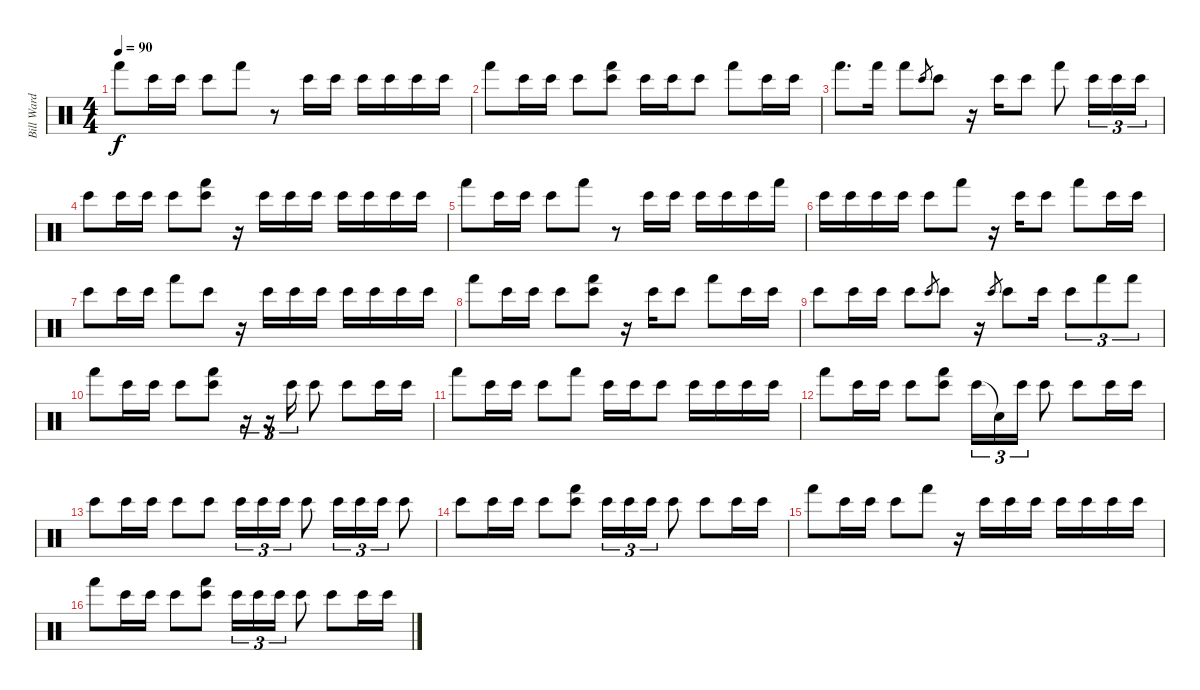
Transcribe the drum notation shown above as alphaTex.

\track ("Bill Ward" "Bill Ward") {instrument percussion}
\staff {score}
\articulation defaults
\ts (4 4)
\tempo 90
\clef neutral
\ks c "Hand (hit)".8{dy f} "Bongo High (hit)".16 "Bongo High (hit)".16 "Bongo High (hit)".8 "Hand (hit)".8
r.8 "Bongo High (hit)".16 "Bongo High (hit)".16 "Bongo High (hit)".16 "Bongo High (hit)".16 "Bongo High (hit)".16 "Bongo High (hit)".16 |
"Hand (hit)".8 "Bongo High (hit)".16 "Bongo High (hit)".16 "Bongo High (hit)".8 ("Bongo High (hit)" "Hand (hit)").8 "Bongo High (hit)".16 "Bongo High (hit)".16 "Bongo High (hit)".8 "Hand (hit)".8 "Bongo High (hit)".16 "Bongo High (hit)".16 |
"Hand (hit)".8{d} "Hand (hit)".16 "Hand (hit)".8 "Bongo High (hit)".8{gr} "Bongo High (hit)".8 r.16 "Bongo High (hit)".16 "Bongo High (hit)".8 "Hand (hit)".8 "Bongo High (hit)".16{tu (3 2)} "Bongo High (hit)".16{tu (3 2)} "Bongo High (hit)".16{tu (3 2)} |
"Bongo High (hit)".8 "Bongo High (hit)".16 "Bongo High (hit)".16 "Bongo High (hit)".8 ("Bongo High (hit)" "Hand (hit)").8 r.16 "Bongo High (hit)".16 "Bongo High (hit)".16 "Bongo High (hit)".16 "Bongo High (hit)".16 "Bongo High (hit)".16 "Bongo High (hit)".16 "Bongo High (hit)".16 |
"Hand (hit)".8 "Bongo High (hit)".16 "Bongo High (hit)".16 "Bongo High (hit)".8 "Hand (hit)".8 r.8 "Bongo High (hit)".16 "Bongo High (hit)".16 "Bongo High (hit)".16 "Bongo High (hit)".16 "Bongo High (hit)".16 "Hand (hit)".16 |
"Bongo High (hit)".16 "Bongo High (hit)".16 "Bongo High (hit)".16 "Bongo High (hit)".16 "Bongo High (hit)".8 "Hand (hit)".8 r.16 "Bongo High (hit)".16 "Bongo High (hit)".8 "Hand (hit)".8 "Bongo High (hit)".16 "Bongo High (hit)".16 |
"Bongo High (hit)".8 "Bongo High (hit)".16 "Bongo High (hit)".16 "Hand (hit)".8 "Bongo High (hit)".8 r.16 "Bongo High (hit)".16 "Bongo High (hit)".16 "Bongo High (hit)".16 "Bongo High (hit)".16 "Bongo High (hit)".16 "Bongo High (hit)".16 "Bongo High (hit)".16 |
"Hand (hit)".8 "Bongo High (hit)".16 "Bongo High (hit)".16 "Bongo High (hit)".8 ("Bongo High (hit)" "Hand (hit)").8 r.16 "Bongo High (hit)".16 "Bongo High (hit)".8 "Hand (hit)".8 "Bongo High (hit)".16 "Bongo High (hit)".16 |
"Bongo High (hit)".8 "Bongo High (hit)".16 "Bongo High (hit)".16 "Bongo High (hit)".8 "Bongo High (hit)".8{gr} "Bongo High (hit)".8 r.16 "Bongo High (hit)".8{gr} "Bongo High (hit)".8 "Bongo High (hit)".16 "Bongo High (hit)".8{tu (3 2)} "Hand (hit)".8{tu (3 2)} "Hand (hit)".8{tu (3 2)} |
"Hand (hit)".8 "Bongo High (hit)".16 "Bongo High (hit)".16 "Bongo High (hit)".8 ("Bongo High (hit)" "Hand (hit)").8 r.16{tu (3 2)} r.16{tu (3 2)} "Bongo High (hit)".16{tu (3 2)} "Bongo High (hit)".8 "Bongo High (hit)".8 "Bongo High (hit)".16 "Bongo High (hit)".16 |
"Hand (hit)".8 "Bongo High (hit)".16 "Bongo High (hit)".16 "Bongo High (hit)".8 "Hand (hit)".8 "Bongo High (hit)".16 "Bongo High (hit)".16 "Bongo High (hit)".8 "Bongo High (hit)".16 "Bongo High (hit)".16 "Bongo High (hit)".16 "Bongo High (hit)".16 |
"Hand (hit)".8 "Bongo High (hit)".16 "Bongo High (hit)".16 "Bongo High (hit)".8 ("Bongo High (hit)" "Hand (hit)").8 "Bongo High (hit)".16{tu (3 2)} "Snare (hit)"{t}.16{tu (3 2)} "Bongo High (hit)".16{tu (3 2)} "Bongo High (hit)".8 "Bongo High (hit)".8 "Bongo High (hit)".16 "Bongo High (hit)".16 |
"Bongo High (hit)".8 "Bongo High (hit)".16 "Bongo High (hit)".16 "Bongo High (hit)".8 "Bongo High (hit)".8 "Bongo High (hit)".16{tu (3 2)} "Bongo High (hit)".16{tu (3 2)} "Bongo High (hit)".16{tu (3 2)} "Bongo High (hit)".8 "Bongo High (hit)".16{tu (3 2)} "Bongo High (hit)".16{tu (3 2)} "Bongo High (hit)".16{tu (3 2)} "Bongo High (hit)".8 |
"Bongo High (hit)".8 "Bongo High (hit)".16 "Bongo High (hit)".16 "Bongo High (hit)".8 ("Bongo High (hit)" "Hand (hit)").8 "Bongo High (hit)".16{tu (3 2)} "Bongo High (hit)".16{tu (3 2)} "Bongo High (hit)".16{tu (3 2)} "Bongo High (hit)".8 "Bongo High (hit)".8 "Bongo High (hit)".16 "Bongo High (hit)".16 |
"Hand (hit)".8 "Bongo High (hit)".16 "Bongo High (hit)".16 "Bongo High (hit)".8 "Hand (hit)".8 r.16 "Bongo High (hit)".16 "Bongo High (hit)".16 "Bongo High (hit)".16 "Bongo High (hit)".16 "Bongo High (hit)".16 "Bongo High (hit)".16 "Bongo High (hit)".16 |
"Hand (hit)".8 "Bongo High (hit)".16 "Bongo High (hit)".16 "Bongo High (hit)".8 ("Bongo High (hit)" "Hand (hit)").8 "Bongo High (hit)".16{tu (3 2)} "Bongo High (hit)".16{tu (3 2)} "Bongo High (hit)".16{tu (3 2)} "Bongo High (hit)".8 "Bongo High (hit)".8 "Bongo High (hit)".16 "Bongo High (hit)".16
